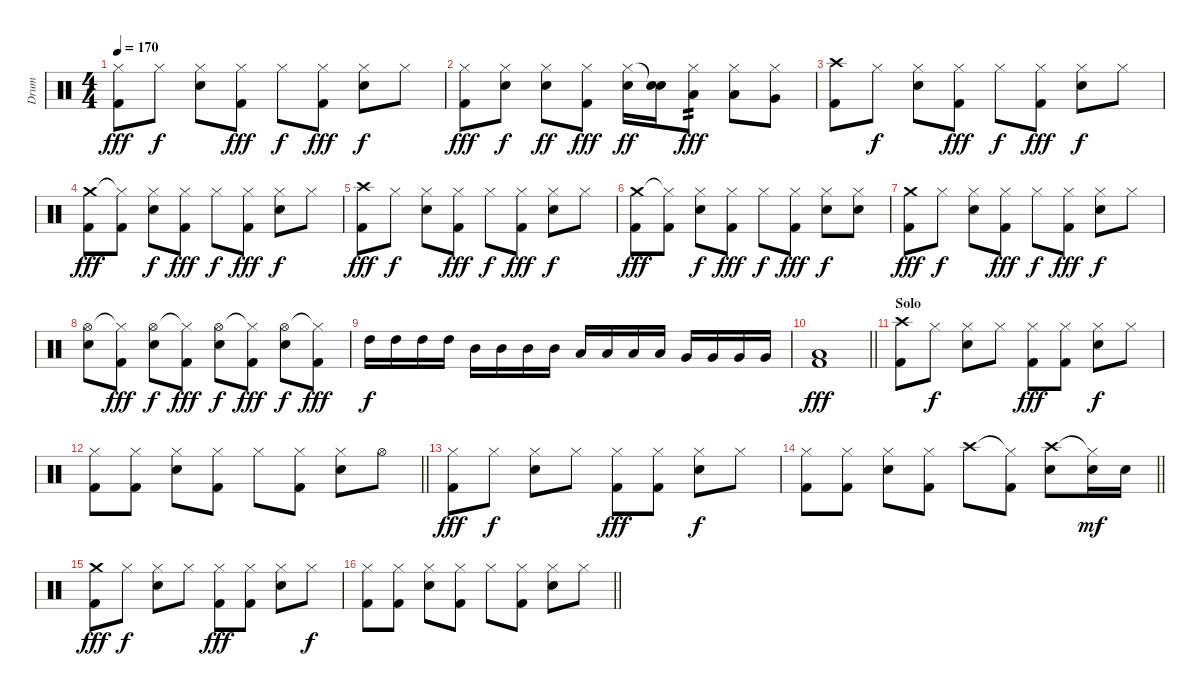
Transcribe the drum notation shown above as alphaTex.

\track ("Drum" "Drum") {instrument percussion}
\staff {score}
\articulation defaults
\ts (4 4)
\tempo 170
\clef neutral
\ks c
("Hi-Hat (closed)" "Kick (hit) 2").8{dy fff} "Hi-Hat (closed)".8{dy f} ("Hi-Hat (closed)" "Snare (hit) 2").8 ("Hi-Hat (closed)" "Kick (hit) 2").8{dy fff} "Hi-Hat (closed)".8{dy f} ("Hi-Hat (closed)" "Kick (hit) 2").8{dy fff} ("Hi-Hat (closed)" "Snare (hit) 2").8{dy f} "Hi-Hat (closed)".8 |
("Hi-Hat (closed)" "Kick (hit) 2").8{dy fff} ("Hi-Hat (closed)" "Snare (hit) 2").8{dy f} ("Hi-Hat (closed)" "Snare (hit) 2").8{dy ff} ("Hi-Hat (closed)" "Kick (hit) 2").8{dy fff} ("Hi-Hat (closed)" "Snare (hit) 2").16{dy ff} ("Snare (hit)"{t} "Snare (hit) 2").16 ("Hi-Hat (closed)" "Low Tom (hit)").8{tp 2 dy fff} ("Hi-Hat (closed)" "Low Tom (hit)").8 ("Hi-Hat (closed)" "Very Low Tom (hit)").8 |
("Crash high (hit)" "Kick (hit) 2").8 "Hi-Hat (closed)".8{dy f} ("Hi-Hat (closed)" "Snare (hit) 2").8 ("Hi-Hat (closed)" "Kick (hit) 2").8{dy fff} "Hi-Hat (closed)".8{dy f} ("Hi-Hat (closed)" "Kick (hit) 2").8{dy fff} ("Hi-Hat (closed)" "Snare (hit) 2").8{dy f} "Hi-Hat (closed)".8 |
("Crash medium (hit)" "Kick (hit) 2").8{dy fff} ("Hi-Hat (closed)"{t} "Kick (hit) 2").8 ("Hi-Hat (closed)" "Snare (hit) 2").8{dy f} ("Hi-Hat (closed)" "Kick (hit) 2").8{dy fff} "Hi-Hat (closed)".8{dy f} ("Hi-Hat (closed)" "Kick (hit) 2").8{dy fff} ("Hi-Hat (closed)" "Snare (hit) 2").8{dy f} "Hi-Hat (closed)".8 |
("Crash high (hit)" "Kick (hit) 2").8{dy fff} "Hi-Hat (closed)".8{dy f} ("Hi-Hat (closed)" "Snare (hit) 2").8 ("Hi-Hat (closed)" "Kick (hit) 2").8{dy fff} "Hi-Hat (closed)".8{dy f} ("Hi-Hat (closed)" "Kick (hit) 2").8{dy fff} ("Hi-Hat (closed)" "Snare (hit) 2").8{dy f} "Hi-Hat (closed)".8 |
("Crash medium (hit)" "Kick (hit) 2").8{dy fff} ("Hi-Hat (closed)"{t} "Kick (hit) 2").8 ("Hi-Hat (closed)" "Snare (hit) 2").8{dy f} ("Hi-Hat (closed)" "Kick (hit) 2").8{dy fff} "Hi-Hat (closed)".8{dy f} ("Hi-Hat (closed)" "Kick (hit) 2").8{dy fff} ("Hi-Hat (closed)" "Snare (hit) 2").8{dy f} ("Hi-Hat (closed)" "Snare (hit) 2").8 |
("Crash medium (hit)" "Kick (hit) 2").8{dy fff} "Hi-Hat (closed)".8{dy f} ("Hi-Hat (closed)" "Snare (hit) 2").8 ("Hi-Hat (closed)" "Kick (hit) 2").8{dy fff} "Hi-Hat (closed)".8{dy f} ("Hi-Hat (closed)" "Kick (hit) 2").8{dy fff} ("Hi-Hat (closed)" "Snare (hit) 2").8{dy f} "Hi-Hat (closed)".8 |
("Hi-Hat (open)" "Snare (hit) 2").8 ("Hi-Hat (closed)"{t} "Kick (hit) 2").8{dy fff} ("Hi-Hat (open)" "Snare (hit) 2").8{dy f} ("Hi-Hat (closed)"{t} "Kick (hit) 2").8{dy fff} ("Hi-Hat (open)" "Snare (hit) 2").8{dy f} ("Hi-Hat (closed)"{t} "Kick (hit) 2").8{dy fff} ("Hi-Hat (open)" "Snare (hit) 2").8{dy f} ("Hi-Hat (closed)"{t} "Kick (hit) 2").8{dy fff} |
"High Tom (hit)".16{dy f} "High Tom (hit)".16 "High Tom (hit)".16 "High Tom (hit)".16 "Mid Tom (hit)".16 "Mid Tom (hit)".16 "Mid Tom (hit)".16 "Mid Tom (hit)".16 "Low Tom (hit)".16 "Low Tom (hit)".16 "Low Tom (hit)".16 "Low Tom (hit)".16 "Very Low Tom (hit)".16 "Very Low Tom (hit)".16 "Very Low Tom (hit)".16 "Very Low Tom (hit)".16 |
\barLineRight lightlight
("Low Floor Tom (hit)" "Kick (hit) 2").1{dy fff} |
\section ("" "Solo")
("Crash high (hit)" "Kick (hit) 2").8 "Hi-Hat (closed)".8{dy f} ("Hi-Hat (closed)" "Snare (hit) 2").8 "Hi-Hat (closed)".8 ("Hi-Hat (closed)" "Kick (hit) 2").8{dy fff} ("Hi-Hat (closed)" "Kick (hit) 2").8 ("Hi-Hat (closed)" "Snare (hit) 2").8{dy f} "Hi-Hat (closed)".8 |
\barLineRight lightlight
("Hi-Hat (closed)" "Kick (hit) 2").8 ("Hi-Hat (closed)" "Kick (hit) 2").8 ("Hi-Hat (closed)" "Snare (hit) 2").8 ("Hi-Hat (closed)" "Kick (hit) 2").8 "Hi-Hat (closed)".8 ("Hi-Hat (closed)" "Kick (hit) 2").8 ("Hi-Hat (closed)" "Snare (hit) 2").8 "Hi-Hat (open)".8 |
("Hi-Hat (closed)" "Kick (hit) 2").8{dy fff} "Hi-Hat (closed)".8{dy f} ("Hi-Hat (closed)" "Snare (hit) 2").8 "Hi-Hat (closed)".8 ("Hi-Hat (closed)" "Kick (hit) 2").8{dy fff} ("Hi-Hat (closed)" "Kick (hit) 2").8 ("Hi-Hat (closed)" "Snare (hit) 2").8{dy f} "Hi-Hat (closed)".8 |
\barLineRight lightlight
("Hi-Hat (closed)" "Kick (hit) 2").8 ("Hi-Hat (closed)" "Kick (hit) 2").8 ("Hi-Hat (closed)" "Snare (hit) 2").8 ("Hi-Hat (closed)" "Kick (hit) 2").8 "Crash high (hit)".8 ("Hi-Hat (closed)"{t} "Kick (hit) 2").8 ("Crash high (hit)" "Snare (hit) 2").8 ("Hi-Hat (closed)"{t} "Snare (hit) 2").16{dy mf} "Snare (hit) 2".16 |
("Crash medium (hit)" "Kick (hit) 2").8{dy fff} "Hi-Hat (closed)".8{dy f} ("Hi-Hat (closed)" "Snare (hit) 2").8 "Hi-Hat (closed)".8 ("Hi-Hat (closed)" "Kick (hit) 2").8{dy fff} ("Hi-Hat (closed)" "Kick (hit) 2").8 ("Hi-Hat (closed)" "Snare (hit) 2").8 "Hi-Hat (closed)".8{dy f} |
\barLineRight lightlight
("Hi-Hat (closed)" "Kick (hit) 2").8 ("Hi-Hat (closed)" "Kick (hit) 2").8 ("Hi-Hat (closed)" "Snare (hit) 2").8 ("Hi-Hat (closed)" "Kick (hit) 2").8 "Hi-Hat (closed)".8 ("Hi-Hat (closed)" "Kick (hit) 2").8 ("Hi-Hat (closed)" "Snare (hit) 2").8 "Hi-Hat (closed)".8
